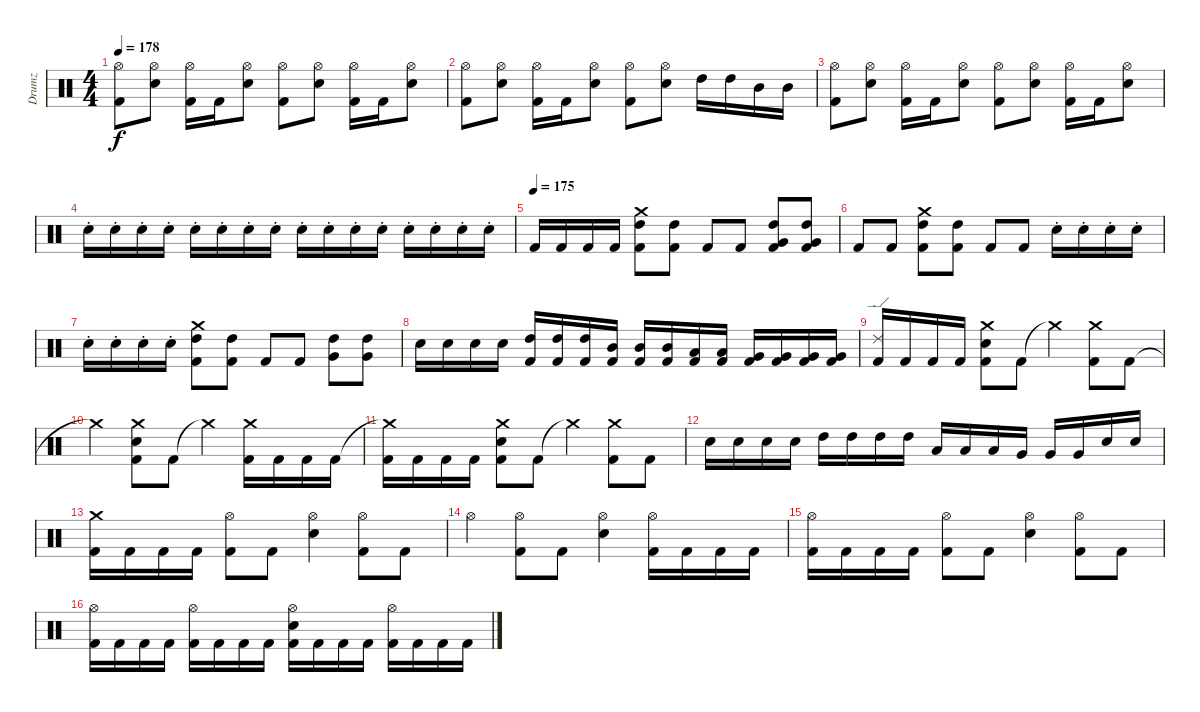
\track ("Drumz" "Drumz") {instrument percussion}
\staff {score}
\articulation defaults
\ts (4 4)
\tempo 178
\clef neutral
\ks c
("Hi-Hat (open)" "Kick (hit) 2").8{dy f} ("Hi-Hat (open)" "Electric Snare (hit)").8 ("Hi-Hat (open)" "Kick (hit) 2").16 "Kick (hit) 2".16 ("Hi-Hat (open)" "Electric Snare (hit)").8 ("Hi-Hat (open)" "Kick (hit) 2").8 ("Hi-Hat (open)" "Electric Snare (hit)").8 ("Hi-Hat (open)" "Kick (hit) 2").16 "Kick (hit) 2".16 ("Hi-Hat (open)" "Electric Snare (hit)").8 |
("Hi-Hat (open)" "Kick (hit) 2").8 ("Hi-Hat (open)" "Electric Snare (hit)").8 ("Hi-Hat (open)" "Kick (hit) 2").16 "Kick (hit) 2".16 ("Hi-Hat (open)" "Electric Snare (hit)").8 ("Hi-Hat (open)" "Kick (hit) 2").8 ("Hi-Hat (open)" "Electric Snare (hit)").8 "High Tom (hit)".16 "High Tom (hit)".16 "Mid Tom (hit)".16 "Mid Tom (hit)".16 |
("Hi-Hat (open)" "Kick (hit) 2").8 ("Hi-Hat (open)" "Electric Snare (hit)").8 ("Hi-Hat (open)" "Kick (hit) 2").16 "Kick (hit) 2".16 ("Hi-Hat (open)" "Electric Snare (hit)").8 ("Hi-Hat (open)" "Kick (hit) 2").8 ("Hi-Hat (open)" "Electric Snare (hit)").8 ("Hi-Hat (open)" "Kick (hit) 2").16 "Kick (hit) 2".16 ("Hi-Hat (open)" "Electric Snare (hit)").8 |
"Electric Snare (hit)"{st}.16 "Electric Snare (hit)"{st}.16 "Electric Snare (hit)"{st}.16 "Electric Snare (hit)"{st}.16 "Electric Snare (hit)"{st}.16 "Electric Snare (hit)"{st}.16 "Electric Snare (hit)"{st}.16 "Electric Snare (hit)"{st}.16 "Electric Snare (hit)"{st}.16 "Electric Snare (hit)"{st}.16 "Electric Snare (hit)"{st}.16 "Electric Snare (hit)"{st}.16 "Electric Snare (hit)"{st}.16 "Electric Snare (hit)"{st}.16 "Electric Snare (hit)"{st}.16 "Electric Snare (hit)"{st}.16 |
\tempo (175)
"Kick (hit) 2".16 "Kick (hit) 2".16 "Kick (hit) 2".16 "Kick (hit) 2".16 ("Crash medium (hit)" "High Tom (hit)" "Kick (hit) 2").8 ("High Tom (hit)" "Kick (hit) 2").8 "Kick (hit) 2".8 "Kick (hit) 2".8 ("High Tom (hit)" "Very Low Tom (hit)" "Kick (hit) 2").8 ("High Tom (hit)" "Very Low Tom (hit)" "Kick (hit) 2").8 |
"Kick (hit) 2".8 "Kick (hit) 2".8 ("Crash medium (hit)" "High Tom (hit)" "Kick (hit) 2").8 ("High Tom (hit)" "Kick (hit) 2").8 "Kick (hit) 2".8 "Kick (hit) 2".8 "Electric Snare (hit)"{st}.16 "Electric Snare (hit)"{st}.16 "Electric Snare (hit)"{st}.16 "Electric Snare (hit)"{st}.16 |
"Electric Snare (hit)"{st}.16 "Electric Snare (hit)"{st}.16 "Electric Snare (hit)"{st}.16 "Electric Snare (hit)"{st}.16 ("Crash medium (hit)" "High Tom (hit)" "Kick (hit) 2").8 ("High Tom (hit)" "Kick (hit) 2").8 "Kick (hit) 2".8 "Kick (hit) 2".8 ("High Tom (hit)" "Very Low Tom (hit)").8 ("High Tom (hit)" "Very Low Tom (hit)").8 |
"Electric Snare (hit)".16 "Electric Snare (hit)".16 "Electric Snare (hit)".16 "Electric Snare (hit)".16 ("High Tom (hit)" "Kick (hit) 2").16 ("High Tom (hit)" "Kick (hit) 2").16 ("High Tom (hit)" "Kick (hit) 2").16 ("Mid Tom (hit)" "Kick (hit) 2").16 ("Mid Tom (hit)" "Kick (hit) 2").16 ("Mid Tom (hit)" "Kick (hit) 2").16 ("Low Tom (hit)" "Kick (hit) 2").16 ("Low Tom (hit)" "Kick (hit) 2").16 ("Very Low Tom (hit)" "Kick (hit) 2").16 ("Very Low Tom (hit)" "Kick (hit) 2").16 ("Very Low Tom (hit)" "Kick (hit) 2").16 ("Very Low Tom (hit)" "Kick (hit) 2").16 |
("Ride (edge) 2" "Kick (hit) 2").16 "Kick (hit) 2".16 "Kick (hit) 2".16 "Kick (hit) 2".16 ("Crash medium (hit)" "Electric Snare (hit)" "Kick (hit) 2").8 "Kick (hit) 2".8 "Crash medium (hit)"{t}.4 ("Crash medium (hit)" "Kick (hit) 2").8 "Kick (hit) 2".8 |
"Crash medium (hit)"{t}.4 ("Crash medium (hit)" "Electric Snare (hit)" "Kick (hit) 2").8 "Kick (hit) 2".8 "Crash medium (hit)"{t}.4 ("Crash medium (hit)" "Kick (hit) 2").16 "Kick (hit) 2".16 "Kick (hit) 2".16 "Kick (hit) 2".16 |
("Crash medium (hit)"{t} "Kick (hit) 2").16 "Kick (hit) 2".16 "Kick (hit) 2".16 "Kick (hit) 2".16 ("Crash medium (hit)" "Electric Snare (hit)" "Kick (hit) 2").8 "Kick (hit) 2".8 "Crash medium (hit)"{t}.4 ("Crash medium (hit)" "Kick (hit) 2").8 "Kick (hit) 2".8 |
"Electric Snare (hit)".16 "Electric Snare (hit)".16 "Electric Snare (hit)".16 "Electric Snare (hit)".16 "High Tom (hit)".16 "High Tom (hit)".16 "High Tom (hit)".16 "High Tom (hit)".16 "Low Tom (hit)".16 "Low Tom (hit)".16 "Low Tom (hit)".16 "Very Low Tom (hit)".16 "Very Low Tom (hit)".16 "Very Low Tom (hit)".16 "Electric Snare (hit)".16 "Electric Snare (hit)".16 |
("Crash medium (hit)" "Kick (hit) 2").16 "Kick (hit) 2".16 "Kick (hit) 2".16 "Kick (hit) 2".16 ("Hi-Hat (open)" "Kick (hit) 2").8 "Kick (hit) 2".8 ("Hi-Hat (open)" "Electric Snare (hit)").4 ("Hi-Hat (open)" "Kick (hit) 2").8 "Kick (hit) 2".8 |
"Hi-Hat (open)".4 ("Hi-Hat (open)" "Kick (hit) 2").8 "Kick (hit) 2".8 ("Hi-Hat (open)" "Electric Snare (hit)").4 ("Hi-Hat (open)" "Kick (hit) 2").16 "Kick (hit) 2".16 "Kick (hit) 2".16 "Kick (hit) 2".16 |
("Hi-Hat (open)" "Kick (hit) 2").16 "Kick (hit) 2".16 "Kick (hit) 2".16 "Kick (hit) 2".16 ("Hi-Hat (open)" "Kick (hit) 2").8 "Kick (hit) 2".8 ("Hi-Hat (open)" "Electric Snare (hit)").4 ("Hi-Hat (open)" "Kick (hit) 2").8 "Kick (hit) 2".8 |
("Hi-Hat (open)" "Kick (hit) 2").16 "Kick (hit) 2".16 "Kick (hit) 2".16 "Kick (hit) 2".16 ("Hi-Hat (open)" "Kick (hit) 2").16 "Kick (hit) 2".16 "Kick (hit) 2".16 "Kick (hit) 2".16 ("Hi-Hat (open)" "Electric Snare (hit)" "Kick (hit) 2").16 "Kick (hit) 2".16 "Kick (hit) 2".16 "Kick (hit) 2".16 ("Hi-Hat (open)" "Kick (hit) 2").16 "Kick (hit) 2".16 "Kick (hit) 2".16 "Kick (hit) 2".16
